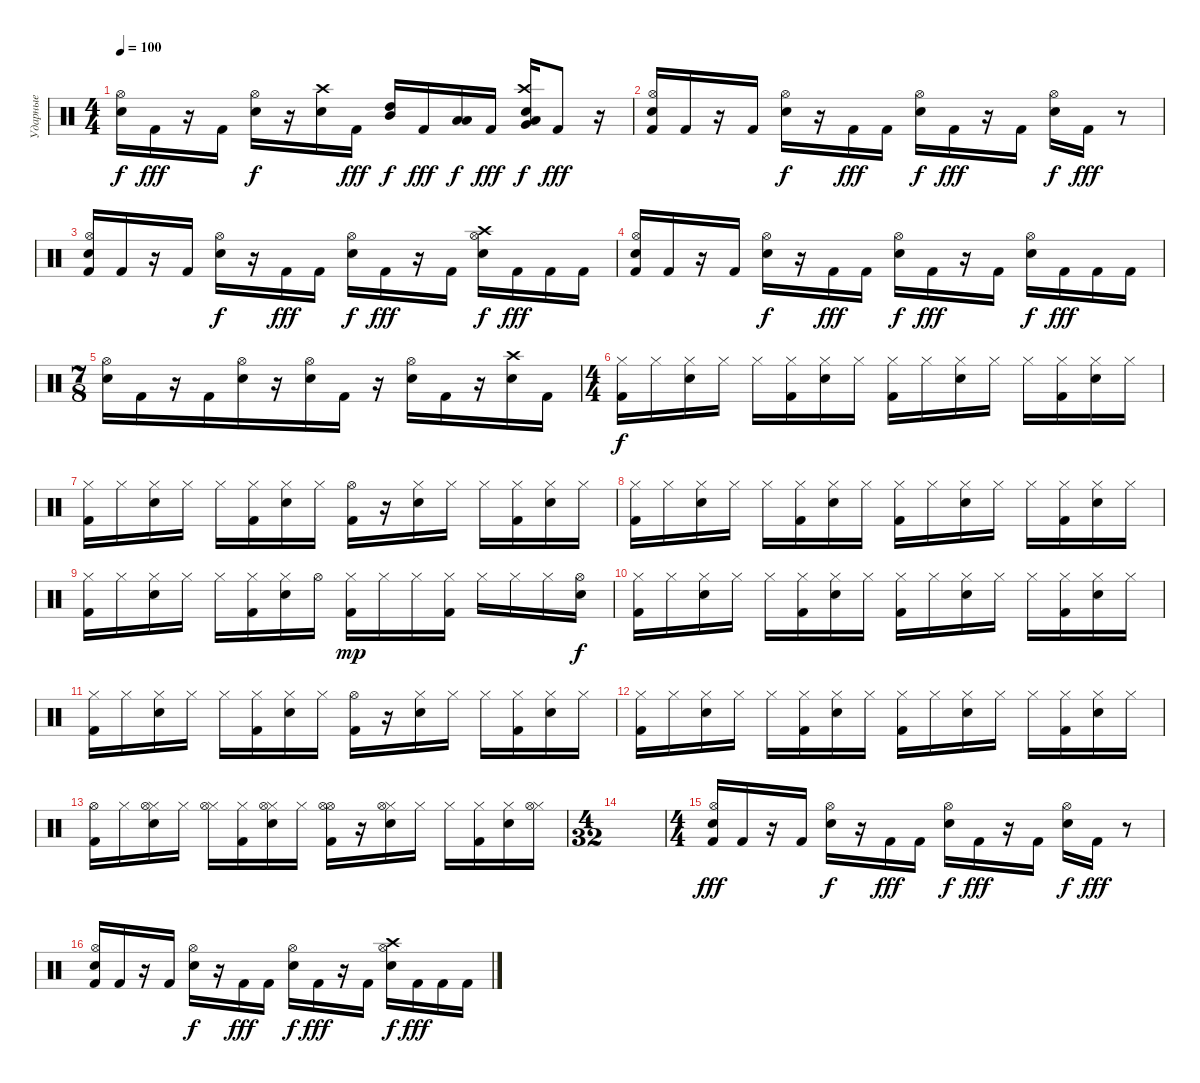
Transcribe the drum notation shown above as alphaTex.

\track ("Ударные" "Ударные") {instrument percussion}
\staff {score}
\articulation defaults
\ts (4 4)
\tempo 100
\clef neutral
\ks c
("Electric Snare (hit)" "Hi-Hat (open)").16{dy f} "Kick (hit) 2".16{dy fff} r.16 "Kick (hit) 2".16 ("Electric Snare (hit)" "Hi-Hat (open)").16{dy f} r.16 ("Electric Snare (hit)" "Crash high (hit)").16 "Kick (hit) 2".16{dy fff} ("High Tom (hit)" "Mid Tom (hit)").16{dy f} "Kick (hit) 2".16{dy fff} ("Low Tom (hit)" "Low Tom (hit)").16{dy f} "Kick (hit) 2".16{dy fff} ("Very Low Tom (hit)" "Low Floor Tom (hit)" "Crash high (hit)" "Electric Snare (hit)").16{dy f} "Kick (hit) 2".8{dy fff} r.16 |
("Kick (hit) 2" "Hi-Hat (open)" "Electric Snare (hit)").16 "Kick (hit) 2".16 r.16 "Kick (hit) 2".16 ("Electric Snare (hit)" "Hi-Hat (open)").16{dy f} r.16 "Kick (hit) 2".16{dy fff} "Kick (hit) 2".16 ("Electric Snare (hit)" "Hi-Hat (open)").16{dy f} "Kick (hit) 2".16{dy fff} r.16 "Kick (hit) 2".16 ("Electric Snare (hit)" "Hi-Hat (open)").16{dy f} "Kick (hit) 2".16{dy fff} r.8 |
("Kick (hit) 2" "Hi-Hat (open)" "Electric Snare (hit)").16 "Kick (hit) 2".16 r.16 "Kick (hit) 2".16 ("Electric Snare (hit)" "Hi-Hat (open)").16{dy f} r.16 "Kick (hit) 2".16{dy fff} "Kick (hit) 2".16 ("Electric Snare (hit)" "Hi-Hat (open)").16{dy f} "Kick (hit) 2".16{dy fff} r.16 "Kick (hit) 2".16 ("Electric Snare (hit)" "Hi-Hat (open)" "Crash high (hit)").16{dy f} "Kick (hit) 2".16{dy fff} "Kick (hit) 2".16 "Kick (hit) 2".16 |
("Kick (hit) 2" "Hi-Hat (open)" "Electric Snare (hit)").16 "Kick (hit) 2".16 r.16 "Kick (hit) 2".16 ("Electric Snare (hit)" "Hi-Hat (open)").16{dy f} r.16 "Kick (hit) 2".16{dy fff} "Kick (hit) 2".16 ("Electric Snare (hit)" "Hi-Hat (open)").16{dy f} "Kick (hit) 2".16{dy fff} r.16 "Kick (hit) 2".16 ("Electric Snare (hit)" "Hi-Hat (open)").16{dy f} "Kick (hit) 2".16{dy fff} "Kick (hit) 2".16 "Kick (hit) 2".16 |
\ts (7 8)
("Electric Snare (hit)" "Hi-Hat (open)").16 "Kick (hit) 2".16 r.16 "Kick (hit) 2".16 ("Electric Snare (hit)" "Hi-Hat (open)").16 r.16 ("Electric Snare (hit)" "Hi-Hat (open)").16 "Kick (hit) 2".16 r.16 ("Electric Snare (hit)" "Hi-Hat (open)").16 "Kick (hit) 2".16 r.16 ("Electric Snare (hit)" "Crash high (hit)").16 "Kick (hit) 2".16 |
\ts (4 4)
("Hi-Hat (closed)" "Kick (hit) 2").16{dy f} "Hi-Hat (closed)".16 ("Hi-Hat (closed)" "Electric Snare (hit)").16 "Hi-Hat (closed)".16 "Hi-Hat (closed)".16 ("Hi-Hat (closed)" "Kick (hit) 2").16 ("Hi-Hat (closed)" "Electric Snare (hit)").16 "Hi-Hat (closed)".16 ("Hi-Hat (closed)" "Kick (hit) 2").16 "Hi-Hat (closed)".16 ("Hi-Hat (closed)" "Electric Snare (hit)").16 "Hi-Hat (closed)".16 "Hi-Hat (closed)".16 ("Hi-Hat (closed)" "Kick (hit) 2").16 ("Hi-Hat (closed)" "Electric Snare (hit)").16 "Hi-Hat (closed)".16 |
("Hi-Hat (closed)" "Kick (hit) 2").16 "Hi-Hat (closed)".16 ("Hi-Hat (closed)" "Electric Snare (hit)").16 "Hi-Hat (closed)".16 "Hi-Hat (closed)".16 ("Hi-Hat (closed)" "Kick (hit) 2").16 ("Hi-Hat (closed)" "Electric Snare (hit)").16 "Hi-Hat (closed)".16 ("Hi-Hat (open)" "Kick (hit) 2").16 r.16 ("Hi-Hat (closed)" "Electric Snare (hit)").16 "Hi-Hat (closed)".16 "Hi-Hat (closed)".16 ("Hi-Hat (closed)" "Kick (hit) 2").16 ("Hi-Hat (closed)" "Electric Snare (hit)").16 "Hi-Hat (closed)".16 |
("Hi-Hat (closed)" "Kick (hit) 2").16 "Hi-Hat (closed)".16 ("Hi-Hat (closed)" "Electric Snare (hit)").16 "Hi-Hat (closed)".16 "Hi-Hat (closed)".16 ("Hi-Hat (closed)" "Kick (hit) 2").16 ("Hi-Hat (closed)" "Electric Snare (hit)").16 "Hi-Hat (closed)".16 ("Hi-Hat (closed)" "Kick (hit) 2").16 "Hi-Hat (closed)".16 ("Hi-Hat (closed)" "Electric Snare (hit)").16 "Hi-Hat (closed)".16 "Hi-Hat (closed)".16 ("Hi-Hat (closed)" "Kick (hit) 2").16 ("Hi-Hat (closed)" "Electric Snare (hit)").16 "Hi-Hat (closed)".16 |
("Hi-Hat (closed)" "Kick (hit) 2").16 "Hi-Hat (closed)".16 ("Hi-Hat (closed)" "Electric Snare (hit)").16 "Hi-Hat (closed)".16 "Hi-Hat (closed)".16 ("Hi-Hat (closed)" "Kick (hit) 2").16 ("Hi-Hat (closed)" "Electric Snare (hit)").16 "Hi-Hat (open)".16 ("Hi-Hat (closed)" "Kick (hit) 2").16{dy mp} "Hi-Hat (closed)".16 "Hi-Hat (closed)".16 ("Hi-Hat (closed)" "Kick (hit) 2").16 "Hi-Hat (closed)".16 "Hi-Hat (closed)".16 "Hi-Hat (closed)".16 ("Hi-Hat (open)" "Electric Snare (hit)").16{dy f} |
("Hi-Hat (closed)" "Kick (hit) 2").16 "Hi-Hat (closed)".16 ("Hi-Hat (closed)" "Electric Snare (hit)").16 "Hi-Hat (closed)".16 "Hi-Hat (closed)".16 ("Hi-Hat (closed)" "Kick (hit) 2").16 ("Hi-Hat (closed)" "Electric Snare (hit)").16 "Hi-Hat (closed)".16 ("Hi-Hat (closed)" "Kick (hit) 2").16 "Hi-Hat (closed)".16 ("Hi-Hat (closed)" "Electric Snare (hit)").16 "Hi-Hat (closed)".16 "Hi-Hat (closed)".16 ("Hi-Hat (closed)" "Kick (hit) 2").16 ("Hi-Hat (closed)" "Electric Snare (hit)").16 "Hi-Hat (closed)".16 |
("Hi-Hat (closed)" "Kick (hit) 2").16 "Hi-Hat (closed)".16 ("Hi-Hat (closed)" "Electric Snare (hit)").16 "Hi-Hat (closed)".16 "Hi-Hat (closed)".16 ("Hi-Hat (closed)" "Kick (hit) 2").16 ("Hi-Hat (closed)" "Electric Snare (hit)").16 "Hi-Hat (closed)".16 ("Hi-Hat (open)" "Kick (hit) 2").16 r.16 ("Hi-Hat (closed)" "Electric Snare (hit)").16 "Hi-Hat (closed)".16 "Hi-Hat (closed)".16 ("Hi-Hat (closed)" "Kick (hit) 2").16 ("Hi-Hat (closed)" "Electric Snare (hit)").16 "Hi-Hat (closed)".16 |
("Hi-Hat (closed)" "Kick (hit) 2").16 "Hi-Hat (closed)".16 ("Hi-Hat (closed)" "Electric Snare (hit)").16 "Hi-Hat (closed)".16 "Hi-Hat (closed)".16 ("Hi-Hat (closed)" "Kick (hit) 2").16 ("Hi-Hat (closed)" "Electric Snare (hit)").16 "Hi-Hat (closed)".16 ("Hi-Hat (closed)" "Kick (hit) 2").16 "Hi-Hat (closed)".16 ("Hi-Hat (closed)" "Electric Snare (hit)").16 "Hi-Hat (closed)".16 "Hi-Hat (closed)".16 ("Hi-Hat (closed)" "Kick (hit) 2").16 ("Hi-Hat (closed)" "Electric Snare (hit)").16 "Hi-Hat (closed)".16 |
("Kick (hit) 2" "Hi-Hat (open)").16 "Hi-Hat (closed)".16 ("Hi-Hat (closed)" "Electric Snare (hit)" "Hi-Hat (open)").16 "Hi-Hat (closed)".16 ("Hi-Hat (closed)" "Hi-Hat (open)").16 ("Hi-Hat (closed)" "Kick (hit) 2").16 ("Hi-Hat (closed)" "Electric Snare (hit)" "Hi-Hat (open)").16 "Hi-Hat (closed)".16 ("Hi-Hat (open)" "Kick (hit) 2" "Hi-Hat (open)").16 r.16 ("Hi-Hat (closed)" "Electric Snare (hit)" "Hi-Hat (open)").16 "Hi-Hat (closed)".16 "Hi-Hat (closed)".16 ("Hi-Hat (closed)" "Kick (hit) 2").16 ("Hi-Hat (closed)" "Electric Snare (hit)").16 ("Hi-Hat (closed)" "Hi-Hat (open)").16 |
\ts (4 32)
|
\ts (4 4)
("Kick (hit) 2" "Hi-Hat (open)" "Electric Snare (hit)").16{dy fff} "Kick (hit) 2".16 r.16 "Kick (hit) 2".16 ("Electric Snare (hit)" "Hi-Hat (open)").16{dy f} r.16 "Kick (hit) 2".16{dy fff} "Kick (hit) 2".16 ("Electric Snare (hit)" "Hi-Hat (open)").16{dy f} "Kick (hit) 2".16{dy fff} r.16 "Kick (hit) 2".16 ("Electric Snare (hit)" "Hi-Hat (open)").16{dy f} "Kick (hit) 2".16{dy fff} r.8 |
("Kick (hit) 2" "Hi-Hat (open)" "Electric Snare (hit)").16 "Kick (hit) 2".16 r.16 "Kick (hit) 2".16 ("Electric Snare (hit)" "Hi-Hat (open)").16{dy f} r.16 "Kick (hit) 2".16{dy fff} "Kick (hit) 2".16 ("Electric Snare (hit)" "Hi-Hat (open)").16{dy f} "Kick (hit) 2".16{dy fff} r.16 "Kick (hit) 2".16 ("Electric Snare (hit)" "Hi-Hat (open)" "Crash high (hit)").16{dy f} "Kick (hit) 2".16{dy fff} "Kick (hit) 2".16 "Kick (hit) 2".16
